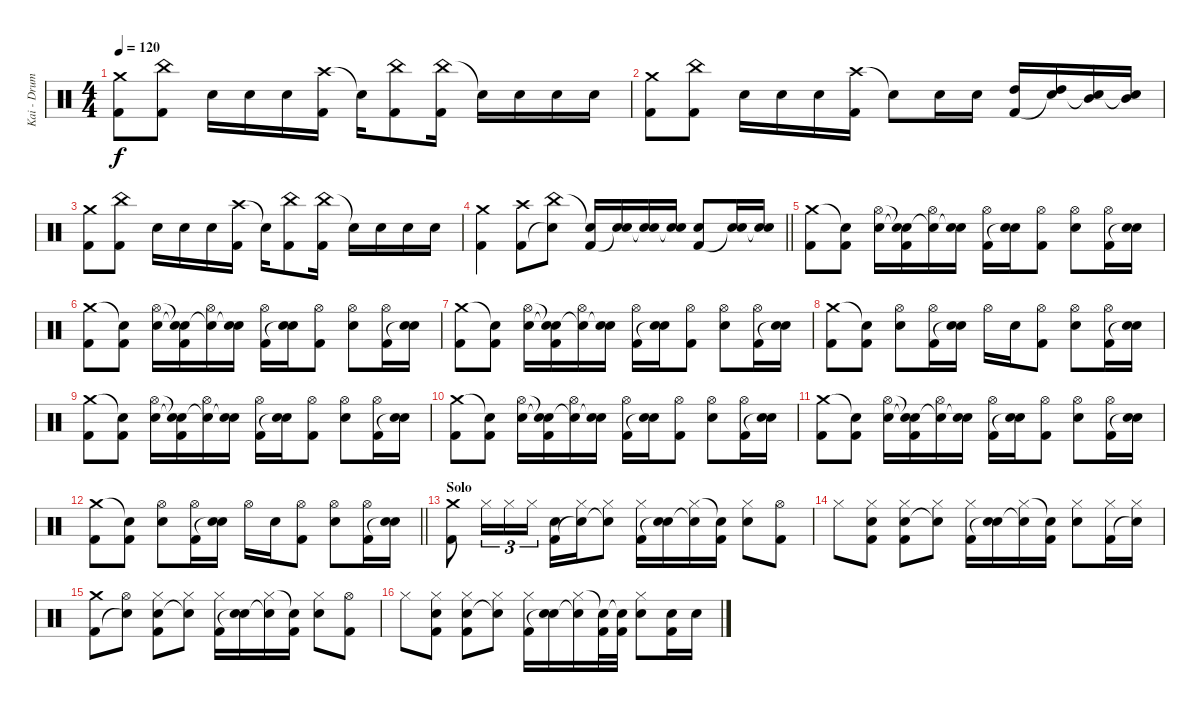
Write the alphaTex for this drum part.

\track ("Kai - Drums" "Kai - Drum") {instrument percussion}
\staff {score}
\articulation defaults
\ts (4 4)
\tempo 120
\clef neutral
\ks c
("Crash medium (hit)" "Kick (hit) 2").8{dy f} ("China (hit)" "Kick (hit) 2").8 "Snare (hit) 2".16 "Snare (hit) 2".16 "Snare (hit) 2".16 ("Crash high (hit)" "Kick (hit) 2").16 "Snare (hit)"{t}.16 ("China (hit)" "Kick (hit) 2").8 ("China (hit)" "Kick (hit) 2").16 "Snare (hit)"{t}.16 "Snare (hit) 2".16 "Snare (hit) 2".16 "Snare (hit) 2".16 |
("Crash medium (hit)" "Kick (hit) 2").8 ("China (hit)" "Kick (hit) 2").8 "Snare (hit) 2".16 "Snare (hit) 2".16 "Snare (hit) 2".16 ("Crash high (hit)" "Kick (hit) 2").16 "Snare (hit)"{t}.8 "Snare (hit) 2".16 "Snare (hit) 2".16 ("High Tom (hit)" "Kick (hit) 2").16 ("High Tom (hit)" "Snare (hit)"{t}).16 ("Mid Tom (hit)" "Snare (hit)"{t}).16 ("Mid Tom (hit)" "Snare (hit)"{t}).16 |
("Crash medium (hit)" "Kick (hit) 2").8 ("China (hit)" "Kick (hit) 2").8 "Snare (hit) 2".16 "Snare (hit) 2".16 "Snare (hit) 2".16 ("Crash high (hit)" "Kick (hit) 2").16 "Snare (hit)"{t}.16 ("China (hit)" "Kick (hit) 2").8 ("China (hit)" "Kick (hit) 2").16 "Snare (hit)"{t}.16 "Snare (hit) 2".16 "Snare (hit) 2".16 "Snare (hit) 2".16 |
\barLineRight lightlight
("Crash medium (hit)" "Kick (hit) 2").4 ("Crash high (hit)" "Kick (hit) 2").8 ("China (hit)" "Snare (hit)"{t}).8 ("Snare (hit)"{t} "Kick (hit) 2").16 ("Snare (hit) 2" "Snare (hit)"{t}).16 ("Snare (hit) 2" "Snare (hit)"{t}).16 ("Snare (hit) 2" "Snare (hit)"{t}).16 ("Snare (hit) 2" "Kick (hit) 2").8 ("Snare (hit) 2" "Snare (hit)"{t}).16 ("Snare (hit) 2" "Snare (hit)"{t}).16 |
("Crash medium (hit)" "Kick (hit) 2").8 ("Snare (hit)"{t} "Kick (hit) 2").8 ("Hi-Hat (open)" "Snare (hit) 2").16 ("Snare (hit)"{t} "Snare (hit)"{t} "Kick (hit) 2").16 ("Hi-Hat (open)" "Snare (hit)"{t}).16 ("Snare (hit) 2" "Snare (hit)"{t}).16 ("Hi-Hat (open)" "Kick (hit) 2").16 ("Snare (hit) 2" "Snare (hit)"{t}).16 ("Hi-Hat (open)" "Kick (hit) 2").8 ("Hi-Hat (open)" "Snare (hit) 2").8 ("Hi-Hat (open)" "Kick (hit) 2").16 ("Snare (hit) 2" "Snare (hit)"{t}).16 |
("Crash medium (hit)" "Kick (hit) 2").8 ("Snare (hit)"{t} "Kick (hit) 2").8 ("Hi-Hat (open)" "Snare (hit) 2").16 ("Snare (hit)"{t} "Snare (hit)"{t} "Kick (hit) 2").16 ("Hi-Hat (open)" "Snare (hit)"{t}).16 ("Snare (hit) 2" "Snare (hit)"{t}).16 ("Hi-Hat (open)" "Kick (hit) 2").16 ("Snare (hit) 2" "Snare (hit)"{t}).16 ("Hi-Hat (open)" "Kick (hit) 2").8 ("Hi-Hat (open)" "Snare (hit) 2").8 ("Hi-Hat (open)" "Kick (hit) 2").16 ("Snare (hit) 2" "Snare (hit)"{t}).16 |
("Crash medium (hit)" "Kick (hit) 2").8 ("Snare (hit)"{t} "Kick (hit) 2").8 ("Hi-Hat (open)" "Snare (hit) 2").16 ("Snare (hit)"{t} "Snare (hit)"{t} "Kick (hit) 2").16 ("Hi-Hat (open)" "Snare (hit)"{t}).16 ("Snare (hit) 2" "Snare (hit)"{t}).16 ("Hi-Hat (open)" "Kick (hit) 2").16 ("Snare (hit) 2" "Snare (hit)"{t}).16 ("Hi-Hat (open)" "Kick (hit) 2").8 ("Hi-Hat (open)" "Snare (hit) 2").8 ("Hi-Hat (open)" "Kick (hit) 2").16 ("Snare (hit) 2" "Snare (hit)"{t}).16 |
("Crash medium (hit)" "Kick (hit) 2").8 ("Snare (hit)"{t} "Kick (hit) 2").8 ("Hi-Hat (open)" "Snare (hit) 2").8 ("Hi-Hat (open)" "Kick (hit) 2").16 ("Snare (hit) 2" "Snare (hit)"{t}).16 "Hi-Hat (open)".16 "Snare (hit) 2".16 ("Hi-Hat (open)" "Kick (hit) 2").8 ("Hi-Hat (open)" "Snare (hit) 2").8 ("Hi-Hat (open)" "Kick (hit) 2").16 ("Snare (hit) 2" "Snare (hit)"{t}).16 |
("Crash medium (hit)" "Kick (hit) 2").8 ("Snare (hit)"{t} "Kick (hit) 2").8 ("Hi-Hat (open)" "Snare (hit) 2").16 ("Snare (hit)"{t} "Snare (hit)"{t} "Kick (hit) 2").16 ("Hi-Hat (open)" "Snare (hit)"{t}).16 ("Snare (hit) 2" "Snare (hit)"{t}).16 ("Hi-Hat (open)" "Kick (hit) 2").16 ("Snare (hit) 2" "Snare (hit)"{t}).16 ("Hi-Hat (open)" "Kick (hit) 2").8 ("Hi-Hat (open)" "Snare (hit) 2").8 ("Hi-Hat (open)" "Kick (hit) 2").16 ("Snare (hit) 2" "Snare (hit)"{t}).16 |
("Crash medium (hit)" "Kick (hit) 2").8 ("Snare (hit)"{t} "Kick (hit) 2").8 ("Hi-Hat (open)" "Snare (hit) 2").16 ("Snare (hit)"{t} "Snare (hit)"{t} "Kick (hit) 2").16 ("Hi-Hat (open)" "Snare (hit)"{t}).16 ("Snare (hit) 2" "Snare (hit)"{t}).16 ("Hi-Hat (open)" "Kick (hit) 2").16 ("Snare (hit) 2" "Snare (hit)"{t}).16 ("Hi-Hat (open)" "Kick (hit) 2").8 ("Hi-Hat (open)" "Snare (hit) 2").8 ("Hi-Hat (open)" "Kick (hit) 2").16 ("Snare (hit) 2" "Snare (hit)"{t}).16 |
("Crash medium (hit)" "Kick (hit) 2").8 ("Snare (hit)"{t} "Kick (hit) 2").8 ("Hi-Hat (open)" "Snare (hit) 2").16 ("Snare (hit)"{t} "Snare (hit)"{t} "Kick (hit) 2").16 ("Hi-Hat (open)" "Snare (hit)"{t}).16 ("Snare (hit) 2" "Snare (hit)"{t}).16 ("Hi-Hat (open)" "Kick (hit) 2").16 ("Snare (hit) 2" "Snare (hit)"{t}).16 ("Hi-Hat (open)" "Kick (hit) 2").8 ("Hi-Hat (open)" "Snare (hit) 2").8 ("Hi-Hat (open)" "Kick (hit) 2").16 ("Snare (hit) 2" "Snare (hit)"{t}).16 |
\barLineRight lightlight
("Crash medium (hit)" "Kick (hit) 2").8 ("Snare (hit)"{t} "Kick (hit) 2").8 ("Hi-Hat (open)" "Snare (hit) 2").8 ("Hi-Hat (open)" "Kick (hit) 2").16 ("Snare (hit) 2" "Snare (hit)"{t}).16 "Hi-Hat (open)".16 "Snare (hit) 2".16 ("Hi-Hat (open)" "Kick (hit) 2").8 ("Hi-Hat (open)" "Snare (hit) 2").8 ("Hi-Hat (open)" "Kick (hit) 2").16 ("Snare (hit) 2" "Snare (hit)"{t}).16 |
\section ("" "Solo")
("Crash medium (hit)" "Kick (hit) 2").8 "Hi-Hat (closed)".16{tu (3 2)} "Hi-Hat (closed)".16{tu (3 2)} "Hi-Hat (closed)".16{tu (3 2)} ("Snare (hit) 2" "Kick (hit) 2").16 ("Hi-Hat (closed)" "Snare (hit)"{t}).16 ("Hi-Hat (closed)" "Snare (hit)"{t}).8 ("Hi-Hat (closed)" "Kick (hit) 2").16 ("Snare (hit) 2" "Snare (hit)"{t}).16 ("Hi-Hat (closed)" "Snare (hit)"{t}).16 ("Snare (hit)"{t} "Kick (hit) 2").16 ("Hi-Hat (closed)" "Snare (hit) 2").8 ("Hi-Hat (open)" "Kick (hit) 2").8 |
"Hi-Hat (closed)".8 ("Hi-Hat (closed)" "Snare (hit) 2" "Kick (hit) 2").8 ("Hi-Hat (closed)" "Snare (hit) 2" "Kick (hit) 2").8 ("Hi-Hat (closed)" "Snare (hit)"{t}).8 ("Hi-Hat (closed)" "Kick (hit) 2").16 ("Snare (hit) 2" "Snare (hit)"{t}).16 ("Hi-Hat (closed)" "Snare (hit)"{t}).16 ("Snare (hit)"{t} "Kick (hit) 2").16 ("Hi-Hat (closed)" "Snare (hit) 2").8 ("Hi-Hat (closed)" "Kick (hit) 2").16 ("Hi-Hat (closed)" "Snare (hit)"{t}).16 |
("Crash medium (hit)" "Kick (hit) 2").8 ("Hi-Hat (open)" "Snare (hit)"{t}).8 ("Hi-Hat (closed)" "Snare (hit) 2" "Kick (hit) 2").8 ("Hi-Hat (closed)" "Snare (hit)"{t}).8 ("Hi-Hat (closed)" "Kick (hit) 2").16 ("Snare (hit) 2" "Snare (hit)"{t}).16 ("Hi-Hat (closed)" "Snare (hit)"{t}).16 ("Snare (hit)"{t} "Kick (hit) 2").16 ("Hi-Hat (closed)" "Snare (hit) 2").8 ("Hi-Hat (open)" "Kick (hit) 2").8 |
"Hi-Hat (closed)".8 ("Hi-Hat (closed)" "Snare (hit) 2" "Kick (hit) 2").8 ("Hi-Hat (closed)" "Snare (hit) 2" "Kick (hit) 2").8 ("Hi-Hat (closed)" "Snare (hit)"{t}).8 ("Hi-Hat (closed)" "Kick (hit) 2").16 ("Snare (hit) 2" "Snare (hit)"{t}).16 ("Hi-Hat (closed)" "Snare (hit)"{t}).16 ("Snare (hit)"{t} "Kick (hit) 2").32 ("Snare (hit)"{t} "Kick (hit) 2").32 ("Hi-Hat (closed)" "Snare (hit) 2").8 ("Snare (hit) 2" "Kick (hit) 2").16 "Snare (hit) 2".16
